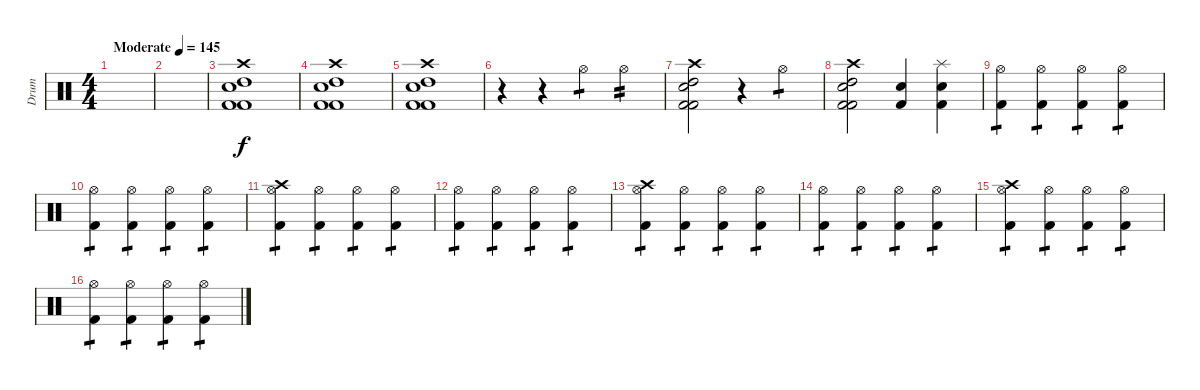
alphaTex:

\track ("Drum" "Drum") {instrument percussion}
\staff {score}
\articulation defaults
\ts (4 4)
\tempo (145 "Moderate")
\clef neutral
\ks c
|
|
("Kick (hit) 2" "High Tom (hit)" "Electric Snare (hit)" "Kick (hit) 2" "Crash high (hit)").1 |
("Kick (hit) 2" "High Tom (hit)" "Electric Snare (hit)" "Kick (hit) 2" "Crash high (hit)").1 |
("Kick (hit) 2" "High Tom (hit)" "Electric Snare (hit)" "Kick (hit) 2" "Crash high (hit)").1 |
r.4 r.4 "Hi-Hat (open)".4{tp 1} "Hi-Hat (open)".4{tp 2} |
("Kick (hit) 2" "High Tom (hit)" "Electric Snare (hit)" "Kick (hit) 2" "Crash high (hit)").2 r.4 "Hi-Hat (open)".4{tp 1} |
("Kick (hit) 2" "High Tom (hit)" "Electric Snare (hit)" "Kick (hit) 2" "Crash high (hit)").2 ("Kick (hit) 2" "Electric Snare (hit)").4 ("Kick (hit) 2" "Snare (hit) 2" "Splash (hit)").4 |
("Hi-Hat (open)" "Kick (hit) 2").4{tp 1} ("Hi-Hat (open)" "Kick (hit) 2").4{tp 1} ("Hi-Hat (open)" "Kick (hit) 2").4{tp 1} ("Hi-Hat (open)" "Kick (hit) 2").4{tp 1} |
("Hi-Hat (open)" "Kick (hit) 2").4{tp 1} ("Hi-Hat (open)" "Kick (hit) 2").4{tp 1} ("Hi-Hat (open)" "Kick (hit) 2").4{tp 1} ("Hi-Hat (open)" "Kick (hit) 2").4{tp 1} |
("Hi-Hat (open)" "Kick (hit) 2" "Crash high (hit)").4{tp 1} ("Hi-Hat (open)" "Kick (hit) 2").4{tp 1} ("Hi-Hat (open)" "Kick (hit) 2").4{tp 1} ("Hi-Hat (open)" "Kick (hit) 2").4{tp 1} |
("Hi-Hat (open)" "Kick (hit) 2").4{tp 1} ("Hi-Hat (open)" "Kick (hit) 2").4{tp 1} ("Hi-Hat (open)" "Kick (hit) 2").4{tp 1} ("Hi-Hat (open)" "Kick (hit) 2").4{tp 1} |
("Hi-Hat (open)" "Kick (hit) 2" "Crash high (hit)").4{tp 1} ("Hi-Hat (open)" "Kick (hit) 2").4{tp 1} ("Hi-Hat (open)" "Kick (hit) 2").4{tp 1} ("Hi-Hat (open)" "Kick (hit) 2").4{tp 1} |
("Hi-Hat (open)" "Kick (hit) 2").4{tp 1} ("Hi-Hat (open)" "Kick (hit) 2").4{tp 1} ("Hi-Hat (open)" "Kick (hit) 2").4{tp 1} ("Hi-Hat (open)" "Kick (hit) 2").4{tp 1} |
("Hi-Hat (open)" "Kick (hit) 2" "Crash high (hit)").4{tp 1} ("Hi-Hat (open)" "Kick (hit) 2").4{tp 1} ("Hi-Hat (open)" "Kick (hit) 2").4{tp 1} ("Hi-Hat (open)" "Kick (hit) 2").4{tp 1} |
("Hi-Hat (open)" "Kick (hit) 2").4{tp 1} ("Hi-Hat (open)" "Kick (hit) 2").4{tp 1} ("Hi-Hat (open)" "Kick (hit) 2").4{tp 1} ("Hi-Hat (open)" "Kick (hit) 2").4{tp 1}
